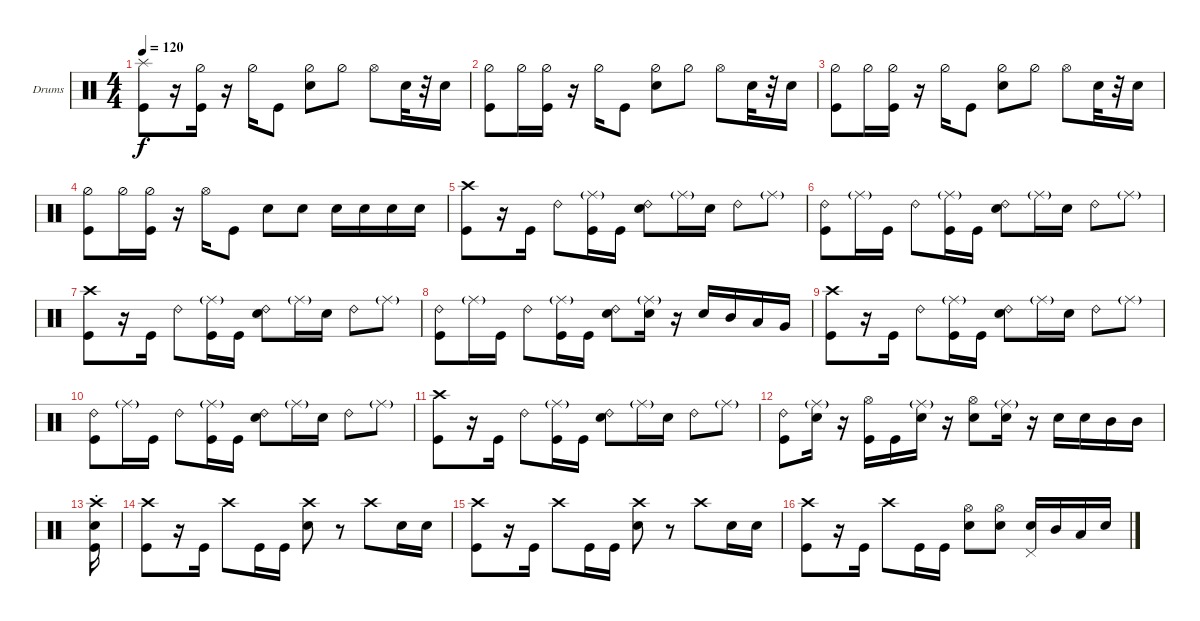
\bracketExtendMode groupsimilarinstruments
\firstSystemTrackNameOrientation horizontal
\otherSystemsTrackNameOrientation horizontal
\track ("Drumkit" "Drums") {instrument percussion}
\staff {score}
\articulation defaults
\ts (4 4)
\tempo 120
\clef neutral
\ks c
("Kick (hit)" "Splash (hit)").8{dy f} r.16 ("Kick (hit)" "Hi-Hat (half)").16 r.16 "Hi-Hat (half)".16 "Kick (hit)".8 ("Snare (hit) 2" "Hi-Hat (half)").8 "Hi-Hat (half)".8 "Hi-Hat (open)".8 "Snare (hit) 2".32 r.32 "Snare (hit) 2".16 |
("Kick (hit)" "Hi-Hat (half)").8 "Hi-Hat (half)".16 ("Kick (hit)" "Hi-Hat (half)").16 r.16 "Hi-Hat (half)".16 "Kick (hit)".8 ("Snare (hit) 2" "Hi-Hat (half)").8 "Hi-Hat (half)".8 "Hi-Hat (open)".8 "Snare (hit) 2".32 r.32 "Snare (hit) 2".16 |
("Kick (hit)" "Hi-Hat (half)").8 "Hi-Hat (half)".16 ("Kick (hit)" "Hi-Hat (half)").16 r.16 "Hi-Hat (half)".16 "Kick (hit)".8 ("Snare (hit) 2" "Hi-Hat (half)").8 "Hi-Hat (half)".8 "Hi-Hat (open)".8 "Snare (hit) 2".32 r.32 "Snare (hit) 2".16 |
("Kick (hit)" "Hi-Hat (half)").8 "Hi-Hat (half)".16 ("Kick (hit)" "Hi-Hat (half)").16 r.16 "Hi-Hat (open)".16 "Kick (hit)".8 "Snare (hit) 2".8 "Snare (hit) 2".8 "Snare (hit) 2".16 "Snare (hit) 2".16 "Snare (hit) 2".16 "Snare (hit) 2".16 |
("Crash high (hit)" "Kick (hit)").8 r.16 "Kick (hit)".16 "Ride (bell) 2".8 ("Kick (hit)" "Ride (middle)"{g}).16 "Kick (hit)".16 ("Ride (bell) 2" "Snare (hit) 2").8 "Ride (middle)"{g}.16 "Snare (hit) 2".16 "Ride (bell) 2".8 "Ride (middle)"{g}.8 |
("Kick (hit)" "Ride (bell) 2").8 "Ride (middle)"{g}.16 "Kick (hit)".16 "Ride (bell) 2".8 ("Kick (hit)" "Ride (middle)"{g}).16 "Kick (hit)".16 ("Ride (bell) 2" "Snare (hit) 2").8 "Ride (middle)"{g}.16 "Snare (hit) 2".16 "Ride (bell) 2".8 "Ride (middle)"{g}.8 |
("Crash high (hit)" "Kick (hit)").8 r.16 "Kick (hit)".16 "Ride (bell) 2".8 ("Kick (hit)" "Ride (middle)"{g}).16 "Kick (hit)".16 ("Ride (bell) 2" "Snare (hit) 2").8 "Ride (middle)"{g}.16 "Snare (hit) 2".16 "Ride (bell) 2".8 "Ride (middle)"{g}.8 |
("Kick (hit)" "Ride (bell) 2").8 "Ride (middle)"{g}.16 "Kick (hit)".16 "Ride (bell) 2".8 ("Kick (hit)" "Ride (middle)"{g}).16 "Kick (hit)".16 ("Ride (bell) 2" "Snare (hit) 2").8 ("Ride (middle)"{g} "Snare (hit) 2").16 r.16 "Snare (hit) 2".16 "Mid Tom (hit)".16 "Low Tom (hit)".16 "Very Low Tom (hit)".16 |
("Crash high (hit)" "Kick (hit)").8 r.16 "Kick (hit)".16 "Ride (bell) 2".8 ("Kick (hit)" "Ride (middle)"{g}).16 "Kick (hit)".16 ("Ride (bell) 2" "Snare (hit) 2").8 "Ride (middle)"{g}.16 "Snare (hit) 2".16 "Ride (bell) 2".8 "Ride (middle)"{g}.8 |
("Kick (hit)" "Ride (bell) 2").8 "Ride (middle)"{g}.16 "Kick (hit)".16 "Ride (bell) 2".8 ("Kick (hit)" "Ride (middle)"{g}).16 "Kick (hit)".16 ("Ride (bell) 2" "Snare (hit) 2").8 "Ride (middle)"{g}.16 "Snare (hit) 2".16 "Ride (bell) 2".8 "Ride (middle)"{g}.8 |
("Crash high (hit)" "Kick (hit)").8 r.16 "Kick (hit)".16 "Ride (bell) 2".8 ("Kick (hit)" "Ride (middle)"{g}).16 "Kick (hit)".16 ("Ride (bell) 2" "Snare (hit) 2").8 "Ride (middle)"{g}.16 "Snare (hit) 2".16 "Ride (bell) 2".8 "Ride (middle)"{g}.8 |
("Kick (hit)" "Ride (bell) 2").8 ("Ride (middle)"{g} "Snare (hit) 2").16 r.16 ("Kick (hit)" "Hi-Hat (open)").16 "Kick (hit)".16 ("Ride (middle)"{g} "Snare (hit) 2").16 r.16 ("Snare (hit) 2" "Hi-Hat (open)").8 ("Ride (middle)"{g} "Snare (hit) 2").16 r.16 "Snare (hit) 2".16 "Snare (hit) 2".16 "Mid Tom (hit)".16 "Mid Tom (hit)".16 |
("Kick (hit)" "Snare (hit) 2" "Crash high (hit)"{st}).16 |
("Crash high (hit)" "Kick (hit)").8 r.16 "Kick (hit)".16 "Crash high (hit)".8 "Kick (hit)".16 "Kick (hit)".16 ("Crash high (hit)" "Snare (hit) 2").8 r.8 "Crash high (hit)".8 "Snare (hit) 2".16 "Snare (hit) 2".16 |
("Crash high (hit)" "Kick (hit)").8 r.16 "Kick (hit)".16 "Crash high (hit)".8 "Kick (hit)".16 "Kick (hit)".16 ("Crash high (hit)" "Snare (hit) 2").8 r.8 "Crash high (hit)".8 "Snare (hit) 2".16 "Snare (hit) 2".16 |
("Crash high (hit)" "Kick (hit)").8 r.16 "Kick (hit)".16 "Crash high (hit)".8 "Kick (hit)".16 "Kick (hit)".16 ("Hi-Hat (open)" "Snare (hit) 2").8 ("Hi-Hat (open)" "Snare (hit) 2").8 ("Snare (hit) 2" "Pedal Hi-Hat (hit)").16 "Mid Tom (hit)".16 "Low Tom (hit)".16 "Snare (hit) 2".16
